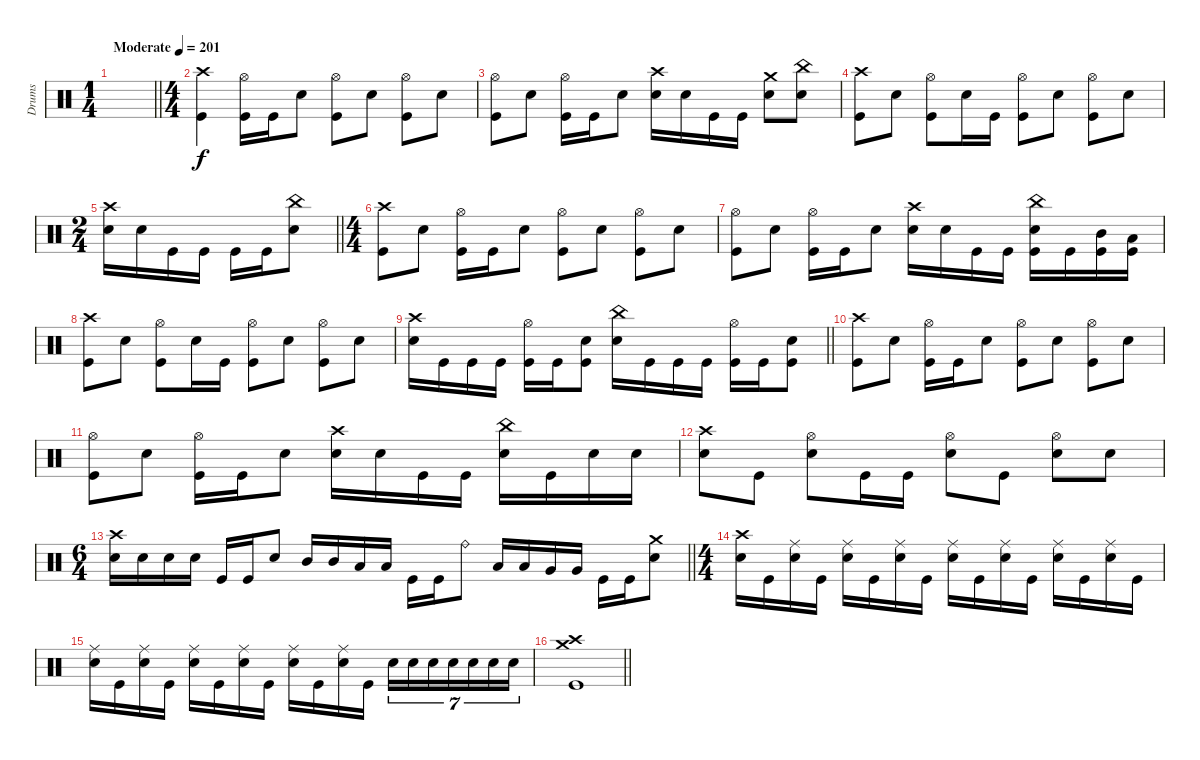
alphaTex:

\track ("Drums" "Drums") {instrument percussion}
\staff
\articulation defaults
\ts (1 4)
\tempo (201 "Moderate")
\clef neutral
\barLineRight lightlight
\ks c
|
\ts (4 4)
("Crash high (hit)" "Kick (hit)").4 ("Hi-Hat (open)" "Kick (hit)").16 "Kick (hit)".16 "Electric Snare (hit)".8 ("Hi-Hat (open)" "Kick (hit)").8 "Electric Snare (hit)".8 ("Hi-Hat (open)" "Kick (hit)").8 "Electric Snare (hit)".8 |
("Hi-Hat (open)" "Kick (hit)").8 "Electric Snare (hit)".8 ("Hi-Hat (open)" "Kick (hit)").16 "Kick (hit)".16 "Electric Snare (hit)".8 ("Crash high (hit)" "Electric Snare (hit)").16 "Electric Snare (hit)".16 "Kick (hit)".16 "Kick (hit)".16 ("Crash medium (hit)" "Electric Snare (hit)").8 ("China (hit)" "Electric Snare (hit)").8 |
("Crash high (hit)" "Kick (hit)").8 "Electric Snare (hit)".8 ("Hi-Hat (open)" "Kick (hit)").8 "Electric Snare (hit)".16 "Kick (hit)".16 ("Hi-Hat (open)" "Kick (hit)").8 "Electric Snare (hit)".8 ("Hi-Hat (open)" "Kick (hit)").8 "Electric Snare (hit)".8 |
\ts (2 4)
\barLineRight lightlight
("Crash high (hit)" "Electric Snare (hit)").16 "Electric Snare (hit)".16 "Kick (hit)".16 "Kick (hit)".16 "Kick (hit)".16 "Kick (hit)".16 ("China (hit)" "Electric Snare (hit)").8 |
\ts (4 4)
("Crash high (hit)" "Kick (hit)").8 "Electric Snare (hit)".8 ("Hi-Hat (open)" "Kick (hit)").16 "Kick (hit)".16 "Electric Snare (hit)".8 ("Hi-Hat (open)" "Kick (hit)").8 "Electric Snare (hit)".8 ("Hi-Hat (open)" "Kick (hit)").8 "Electric Snare (hit)".8 |
("Hi-Hat (open)" "Kick (hit)").8 "Electric Snare (hit)".8 ("Hi-Hat (open)" "Kick (hit)").16 "Kick (hit)".16 "Electric Snare (hit)".8 ("Crash high (hit)" "Electric Snare (hit)").16 "Electric Snare (hit)".16 "Kick (hit)".16 "Kick (hit)".16 ("China (hit)" "Electric Snare (hit)" "Kick (hit)").16 "Kick (hit)".16 ("Mid Tom (hit)" "Kick (hit)").16 ("Low Tom (hit)" "Kick (hit)").16 |
("Crash high (hit)" "Kick (hit)").8 "Electric Snare (hit)".8 ("Hi-Hat (open)" "Kick (hit)").8 "Electric Snare (hit)".16 "Kick (hit)".16 ("Hi-Hat (open)" "Kick (hit)").8 "Electric Snare (hit)".8 ("Hi-Hat (open)" "Kick (hit)").8 "Electric Snare (hit)".8 |
\barLineRight lightlight
("Crash high (hit)" "Electric Snare (hit)").16 "Kick (hit)".16 "Kick (hit)".16 "Kick (hit)".16 ("Hi-Hat (open)" "Kick (hit)").16 "Kick (hit)".16 ("Electric Snare (hit)" "Kick (hit)").8 ("China (hit)" "Electric Snare (hit)").16 "Kick (hit)".16 "Kick (hit)".16 "Kick (hit)".16 ("Hi-Hat (open)" "Kick (hit)").16 "Kick (hit)".16 ("Electric Snare (hit)" "Kick (hit)").8 |
("Crash high (hit)" "Kick (hit)").8 "Electric Snare (hit)".8 ("Hi-Hat (open)" "Kick (hit)").16 "Kick (hit)".16 "Electric Snare (hit)".8 ("Hi-Hat (open)" "Kick (hit)").8 "Electric Snare (hit)".8 ("Hi-Hat (open)" "Kick (hit)").8 "Electric Snare (hit)".8 |
("Hi-Hat (open)" "Kick (hit)").8 "Electric Snare (hit)".8 ("Hi-Hat (open)" "Kick (hit)").16 "Kick (hit)".16 "Electric Snare (hit)".8 ("Crash high (hit)" "Electric Snare (hit)").16 "Electric Snare (hit)".16 "Kick (hit)".16 "Kick (hit)".16 ("China (hit)" "Electric Snare (hit)").16 "Kick (hit)".16 "Electric Snare (hit)".16 "Electric Snare (hit)".16 |
("Crash high (hit)" "Electric Snare (hit)").8 "Kick (hit)".8 ("Hi-Hat (open)" "Electric Snare (hit)").8 "Kick (hit)".16 "Kick (hit)".16 ("Hi-Hat (open)" "Electric Snare (hit)").8 "Kick (hit)".8 ("Hi-Hat (open)" "Electric Snare (hit)").8 "Electric Snare (hit)".8 |
\ts (6 4)
\barLineRight lightlight
("Crash high (hit)" "Electric Snare (hit)").16 "Electric Snare (hit)".16 "Electric Snare (hit)".16 "Electric Snare (hit)".16 "Kick (hit)".16 "Kick (hit)".16 "Electric Snare (hit)".8 "Mid Tom (hit)".16 "Mid Tom (hit)".16 "Low Tom (hit)".16 "Low Tom (hit)".16 "Kick (hit)".16 "Kick (hit)".16 "Ride (bell)".8 "Low Tom (hit)".16 "Low Tom (hit)".16 "Very Low Tom (hit)".16 "Very Low Tom (hit)".16 "Kick (hit)".16 "Kick (hit)".16 ("Crash medium (hit)" "Electric Snare (hit)").8 |
\ts (4 4)
("Crash high (hit)" "Electric Snare (hit)").16 "Kick (hit)".16 ("Ride (middle)" "Electric Snare (hit)").16 "Kick (hit)".16 ("Ride (middle)" "Electric Snare (hit)").16 "Kick (hit)".16 ("Ride (middle)" "Electric Snare (hit)").16 "Kick (hit)".16 ("Ride (middle)" "Electric Snare (hit)").16 "Kick (hit)".16 ("Ride (middle)" "Electric Snare (hit)").16 "Kick (hit)".16 ("Ride (middle)" "Electric Snare (hit)").16 "Kick (hit)".16 ("Ride (middle)" "Electric Snare (hit)").16 "Kick (hit)".16 |
("Ride (middle)" "Electric Snare (hit)").16 "Kick (hit)".16 ("Ride (middle)" "Electric Snare (hit)").16 "Kick (hit)".16 ("Ride (middle)" "Electric Snare (hit)").16 "Kick (hit)".16 ("Ride (middle)" "Electric Snare (hit)").16 "Kick (hit)".16 ("Ride (middle)" "Electric Snare (hit)").16 "Kick (hit)".16 ("Ride (middle)" "Electric Snare (hit)").16 "Kick (hit)".16 "Electric Snare (hit)".16{tu (7 4)} "Electric Snare (hit)".16{tu (7 4)} "Electric Snare (hit)".16{tu (7 4)} "Electric Snare (hit)".16{tu (7 4)} "Electric Snare (hit)".16{tu (7 4)} "Electric Snare (hit)".16{tu (7 4)} "Electric Snare (hit)".16{tu (7 4)} |
\barLineRight lightlight
("Crash high (hit)" "Crash medium (hit)" "Kick (hit)").1
